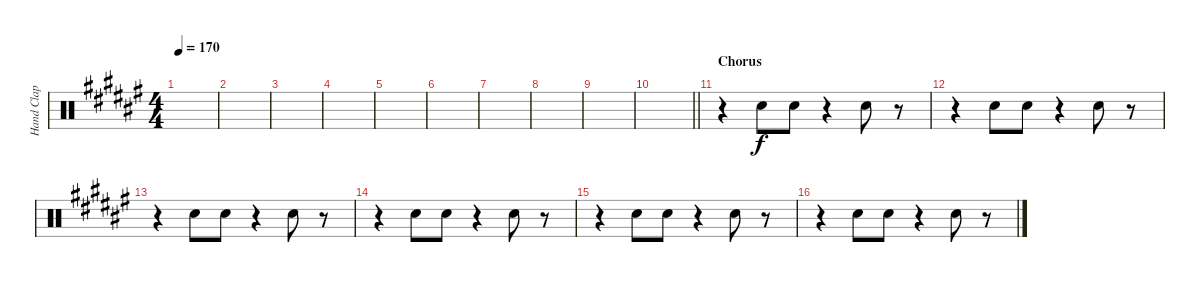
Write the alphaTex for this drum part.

\track ("Hand Clap" "Hand Clap") {instrument percussion}
\staff {score}
\articulation defaults
\ts (4 4)
\tempo 170
\clef neutral
\ks f#
|
|
|
|
|
|
|
|
|
\barLineRight lightlight
|
\section ("" "Chorus")
r.4 "Hand Clap (hit)".8 "Hand Clap (hit)".8 r.4 "Hand Clap (hit)".8 r.8 |
r.4 "Hand Clap (hit)".8 "Hand Clap (hit)".8 r.4 "Hand Clap (hit)".8 r.8 |
r.4 "Hand Clap (hit)".8 "Hand Clap (hit)".8 r.4 "Hand Clap (hit)".8 r.8 |
r.4 "Hand Clap (hit)".8 "Hand Clap (hit)".8 r.4 "Hand Clap (hit)".8 r.8 |
r.4 "Hand Clap (hit)".8 "Hand Clap (hit)".8 r.4 "Hand Clap (hit)".8 r.8 |
r.4 "Hand Clap (hit)".8 "Hand Clap (hit)".8 r.4 "Hand Clap (hit)".8 r.8
